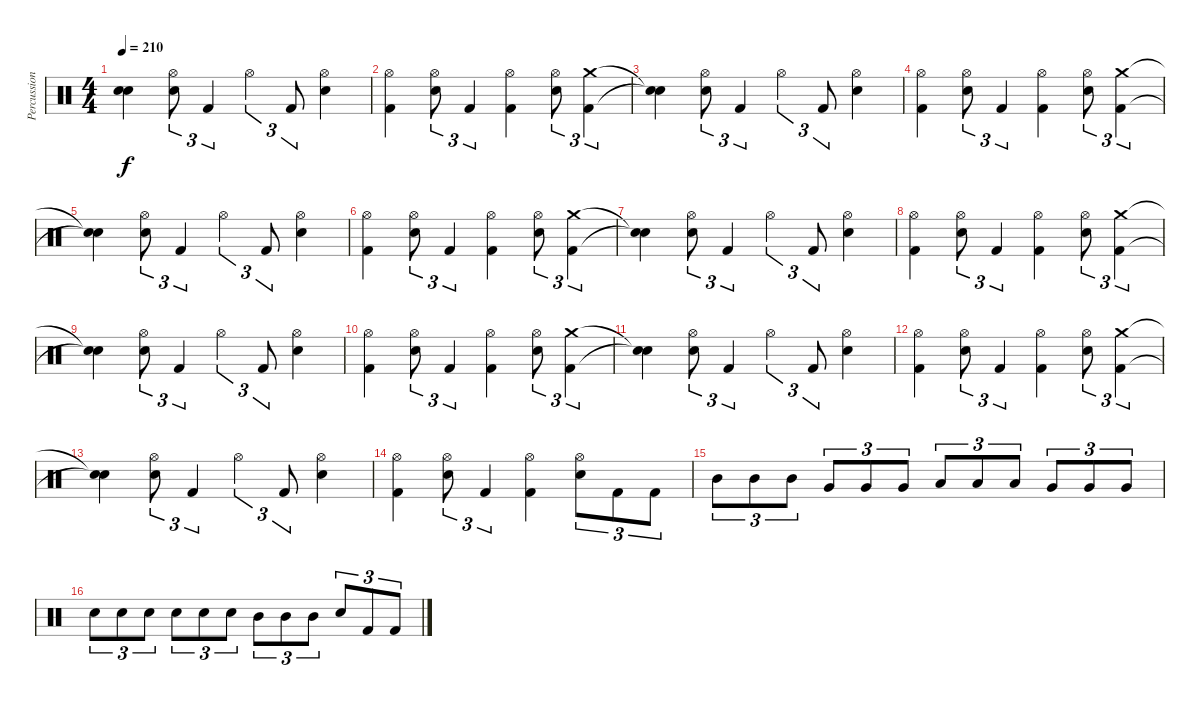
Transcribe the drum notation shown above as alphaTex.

\track ("Percussions" "Percussion") {instrument percussion}
\staff {score}
\articulation defaults
\ts (4 4)
\tempo 210
\clef neutral
\ks c
("Snare (hit)"{t} "Snare (hit)"{t}).4{dy f} ("Snare (hit) 2" "Hi-Hat (open)").8{tu (3 2)} "Kick (hit) 2".4{tu (3 2)} "Hi-Hat (open)".4{tu (3 2)} "Kick (hit) 2".8{tu (3 2)} ("Snare (hit) 2" "Hi-Hat (open)").4 |
("Hi-Hat (open)" "Kick (hit) 2").4 ("Snare (hit) 2" "Hi-Hat (open)").8{tu (3 2)} "Kick (hit) 2".4{tu (3 2)} ("Hi-Hat (open)" "Kick (hit) 2").4 ("Snare (hit) 2" "Hi-Hat (open)").8{tu (3 2)} ("Crash medium (hit)" "Kick (hit) 2").4{tu (3 2)} |
("Snare (hit)"{t} "Snare (hit)"{t}).4 ("Snare (hit) 2" "Hi-Hat (open)").8{tu (3 2)} "Kick (hit) 2".4{tu (3 2)} "Hi-Hat (open)".4{tu (3 2)} "Kick (hit) 2".8{tu (3 2)} ("Snare (hit) 2" "Hi-Hat (open)").4 |
("Hi-Hat (open)" "Kick (hit) 2").4 ("Snare (hit) 2" "Hi-Hat (open)").8{tu (3 2)} "Kick (hit) 2".4{tu (3 2)} ("Hi-Hat (open)" "Kick (hit) 2").4 ("Snare (hit) 2" "Hi-Hat (open)").8{tu (3 2)} ("Crash medium (hit)" "Kick (hit) 2").4{tu (3 2)} |
("Snare (hit)"{t} "Snare (hit)"{t}).4 ("Snare (hit) 2" "Hi-Hat (open)").8{tu (3 2)} "Kick (hit) 2".4{tu (3 2)} "Hi-Hat (open)".4{tu (3 2)} "Kick (hit) 2".8{tu (3 2)} ("Snare (hit) 2" "Hi-Hat (open)").4 |
("Hi-Hat (open)" "Kick (hit) 2").4 ("Snare (hit) 2" "Hi-Hat (open)").8{tu (3 2)} "Kick (hit) 2".4{tu (3 2)} ("Hi-Hat (open)" "Kick (hit) 2").4 ("Snare (hit) 2" "Hi-Hat (open)").8{tu (3 2)} ("Crash medium (hit)" "Kick (hit) 2").4{tu (3 2)} |
("Snare (hit)"{t} "Snare (hit)"{t}).4 ("Snare (hit) 2" "Hi-Hat (open)").8{tu (3 2)} "Kick (hit) 2".4{tu (3 2)} "Hi-Hat (open)".4{tu (3 2)} "Kick (hit) 2".8{tu (3 2)} ("Snare (hit) 2" "Hi-Hat (open)").4 |
("Hi-Hat (open)" "Kick (hit) 2").4 ("Snare (hit) 2" "Hi-Hat (open)").8{tu (3 2)} "Kick (hit) 2".4{tu (3 2)} ("Hi-Hat (open)" "Kick (hit) 2").4 ("Snare (hit) 2" "Hi-Hat (open)").8{tu (3 2)} ("Crash medium (hit)" "Kick (hit) 2").4{tu (3 2)} |
("Snare (hit)"{t} "Snare (hit)"{t}).4 ("Snare (hit) 2" "Hi-Hat (open)").8{tu (3 2)} "Kick (hit) 2".4{tu (3 2)} "Hi-Hat (open)".4{tu (3 2)} "Kick (hit) 2".8{tu (3 2)} ("Snare (hit) 2" "Hi-Hat (open)").4 |
("Hi-Hat (open)" "Kick (hit) 2").4 ("Snare (hit) 2" "Hi-Hat (open)").8{tu (3 2)} "Kick (hit) 2".4{tu (3 2)} ("Hi-Hat (open)" "Kick (hit) 2").4 ("Snare (hit) 2" "Hi-Hat (open)").8{tu (3 2)} ("Crash medium (hit)" "Kick (hit) 2").4{tu (3 2)} |
("Snare (hit)"{t} "Snare (hit)"{t}).4 ("Snare (hit) 2" "Hi-Hat (open)").8{tu (3 2)} "Kick (hit) 2".4{tu (3 2)} "Hi-Hat (open)".4{tu (3 2)} "Kick (hit) 2".8{tu (3 2)} ("Snare (hit) 2" "Hi-Hat (open)").4 |
("Hi-Hat (open)" "Kick (hit) 2").4 ("Snare (hit) 2" "Hi-Hat (open)").8{tu (3 2)} "Kick (hit) 2".4{tu (3 2)} ("Hi-Hat (open)" "Kick (hit) 2").4 ("Snare (hit) 2" "Hi-Hat (open)").8{tu (3 2)} ("Crash medium (hit)" "Kick (hit) 2").4{tu (3 2)} |
("Snare (hit)"{t} "Snare (hit)"{t}).4 ("Snare (hit) 2" "Hi-Hat (open)").8{tu (3 2)} "Kick (hit) 2".4{tu (3 2)} "Hi-Hat (open)".4{tu (3 2)} "Kick (hit) 2".8{tu (3 2)} ("Snare (hit) 2" "Hi-Hat (open)").4 |
("Hi-Hat (open)" "Kick (hit) 2").4 ("Snare (hit) 2" "Hi-Hat (open)").8{tu (3 2)} "Kick (hit) 2".4{tu (3 2)} ("Hi-Hat (open)" "Kick (hit) 2").4 ("Snare (hit) 2" "Hi-Hat (open)").8{tu (3 2)} "Kick (hit) 2".8{tu (3 2)} "Kick (hit) 2".8{tu (3 2)} |
"Mid Tom (hit)".8{tu (3 2)} "Mid Tom (hit)".8{tu (3 2)} "Mid Tom (hit)".8{tu (3 2)} "Very Low Tom (hit)".8{tu (3 2)} "Very Low Tom (hit)".8{tu (3 2)} "Very Low Tom (hit)".8{tu (3 2)} "Low Tom (hit)".8{tu (3 2)} "Low Tom (hit)".8{tu (3 2)} "Low Tom (hit)".8{tu (3 2)} "Very Low Tom (hit)".8{tu (3 2)} "Very Low Tom (hit)".8{tu (3 2)} "Very Low Tom (hit)".8{tu (3 2)} |
"Snare (hit) 2".8{tu (3 2)} "Snare (hit) 2".8{tu (3 2)} "Snare (hit) 2".8{tu (3 2)} "Snare (hit) 2".8{tu (3 2)} "Snare (hit) 2".8{tu (3 2)} "Snare (hit) 2".8{tu (3 2)} "Mid Tom (hit)".8{tu (3 2)} "Mid Tom (hit)".8{tu (3 2)} "Mid Tom (hit)".8{tu (3 2)} "Snare (hit) 2".8{tu (3 2)} "Kick (hit) 2".8{tu (3 2)} "Kick (hit) 2".8{tu (3 2)}
